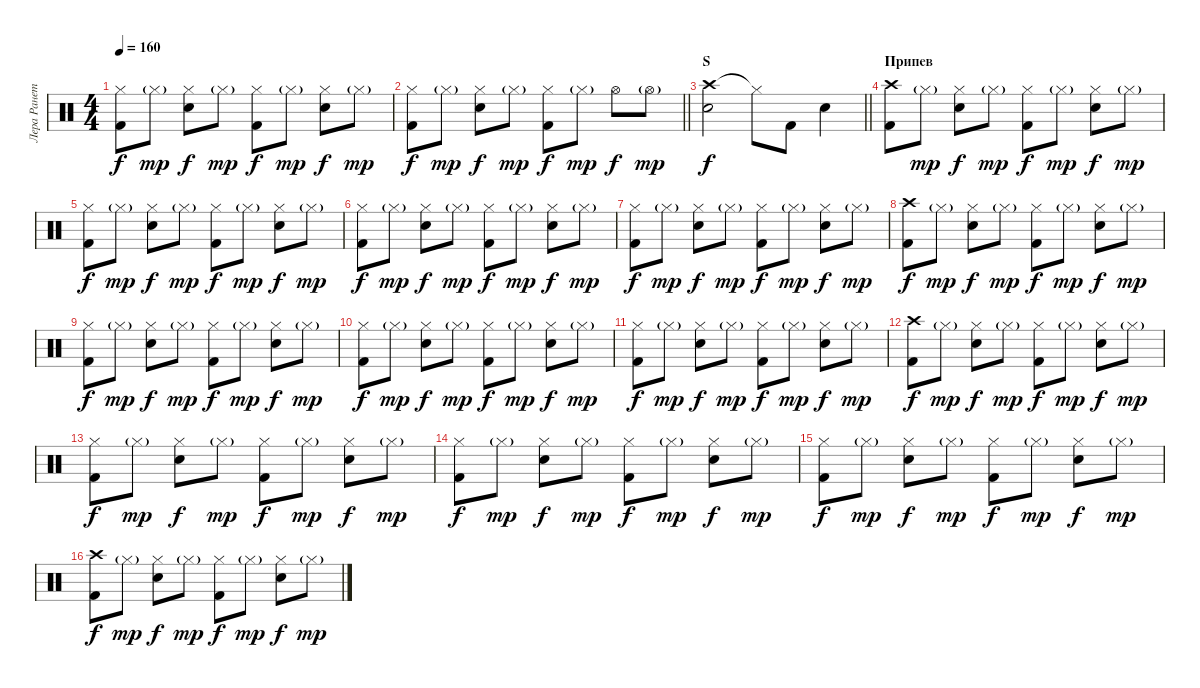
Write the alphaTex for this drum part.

\track ("Лера Ранетка" "Лера Ранет") {instrument percussion}
\staff {score}
\articulation defaults
\ts (4 4)
\tempo 160
\clef neutral
\ks c
("Hi-Hat (closed)" "Kick (hit) 2").8{dy f} "Hi-Hat (closed)"{g}.8{dy mp} ("Hi-Hat (closed)" "Snare (hit) 2").8{dy f} "Hi-Hat (closed)"{g}.8{dy mp} ("Hi-Hat (closed)" "Kick (hit) 2").8{dy f} "Hi-Hat (closed)"{g}.8{dy mp} ("Hi-Hat (closed)" "Snare (hit) 2").8{dy f} "Hi-Hat (closed)"{g}.8{dy mp} |
\barLineRight lightlight
("Hi-Hat (closed)" "Kick (hit) 2").8{dy f} "Hi-Hat (closed)"{g}.8{dy mp} ("Hi-Hat (closed)" "Snare (hit) 2").8{dy f} "Hi-Hat (closed)"{g}.8{dy mp} ("Hi-Hat (closed)" "Kick (hit) 2").8{dy f} "Hi-Hat (closed)"{g}.8{dy mp} "Hi-Hat (open)".8{dy f} "Hi-Hat (open)"{g}.8{dy mp} |
\section ("" "S")
\barLineRight lightlight
("Crash high (hit)" "Snare (hit) 2").2{dy f} "Hi-Hat (closed)"{t}.8 "Kick (hit) 2".8 "Snare (hit) 2".4 |
\section ("" "Припев")
("Crash high (hit)" "Kick (hit) 2").8 "Hi-Hat (closed)"{g}.8{dy mp} ("Hi-Hat (closed)" "Snare (hit) 2").8{dy f} "Hi-Hat (closed)"{g}.8{dy mp} ("Hi-Hat (closed)" "Kick (hit) 2").8{dy f} "Hi-Hat (closed)"{g}.8{dy mp} ("Hi-Hat (closed)" "Snare (hit) 2").8{dy f} "Hi-Hat (closed)"{g}.8{dy mp} |
("Hi-Hat (closed)" "Kick (hit) 2").8{dy f} "Hi-Hat (closed)"{g}.8{dy mp} ("Hi-Hat (closed)" "Snare (hit) 2").8{dy f} "Hi-Hat (closed)"{g}.8{dy mp} ("Hi-Hat (closed)" "Kick (hit) 2").8{dy f} "Hi-Hat (closed)"{g}.8{dy mp} ("Hi-Hat (closed)" "Snare (hit) 2").8{dy f} "Hi-Hat (closed)"{g}.8{dy mp} |
("Hi-Hat (closed)" "Kick (hit) 2").8{dy f} "Hi-Hat (closed)"{g}.8{dy mp} ("Hi-Hat (closed)" "Snare (hit) 2").8{dy f} "Hi-Hat (closed)"{g}.8{dy mp} ("Hi-Hat (closed)" "Kick (hit) 2").8{dy f} "Hi-Hat (closed)"{g}.8{dy mp} ("Hi-Hat (closed)" "Snare (hit) 2").8{dy f} "Hi-Hat (closed)"{g}.8{dy mp} |
("Hi-Hat (closed)" "Kick (hit) 2").8{dy f} "Hi-Hat (closed)"{g}.8{dy mp} ("Hi-Hat (closed)" "Snare (hit) 2").8{dy f} "Hi-Hat (closed)"{g}.8{dy mp} ("Hi-Hat (closed)" "Kick (hit) 2").8{dy f} "Hi-Hat (closed)"{g}.8{dy mp} ("Hi-Hat (closed)" "Snare (hit) 2").8{dy f} "Hi-Hat (closed)"{g}.8{dy mp} |
("Crash high (hit)" "Kick (hit) 2").8{dy f} "Hi-Hat (closed)"{g}.8{dy mp} ("Hi-Hat (closed)" "Snare (hit) 2").8{dy f} "Hi-Hat (closed)"{g}.8{dy mp} ("Hi-Hat (closed)" "Kick (hit) 2").8{dy f} "Hi-Hat (closed)"{g}.8{dy mp} ("Hi-Hat (closed)" "Snare (hit) 2").8{dy f} "Hi-Hat (closed)"{g}.8{dy mp} |
("Hi-Hat (closed)" "Kick (hit) 2").8{dy f} "Hi-Hat (closed)"{g}.8{dy mp} ("Hi-Hat (closed)" "Snare (hit) 2").8{dy f} "Hi-Hat (closed)"{g}.8{dy mp} ("Hi-Hat (closed)" "Kick (hit) 2").8{dy f} "Hi-Hat (closed)"{g}.8{dy mp} ("Hi-Hat (closed)" "Snare (hit) 2").8{dy f} "Hi-Hat (closed)"{g}.8{dy mp} |
("Hi-Hat (closed)" "Kick (hit) 2").8{dy f} "Hi-Hat (closed)"{g}.8{dy mp} ("Hi-Hat (closed)" "Snare (hit) 2").8{dy f} "Hi-Hat (closed)"{g}.8{dy mp} ("Hi-Hat (closed)" "Kick (hit) 2").8{dy f} "Hi-Hat (closed)"{g}.8{dy mp} ("Hi-Hat (closed)" "Snare (hit) 2").8{dy f} "Hi-Hat (closed)"{g}.8{dy mp} |
("Hi-Hat (closed)" "Kick (hit) 2").8{dy f} "Hi-Hat (closed)"{g}.8{dy mp} ("Hi-Hat (closed)" "Snare (hit) 2").8{dy f} "Hi-Hat (closed)"{g}.8{dy mp} ("Hi-Hat (closed)" "Kick (hit) 2").8{dy f} "Hi-Hat (closed)"{g}.8{dy mp} ("Hi-Hat (closed)" "Snare (hit) 2").8{dy f} "Hi-Hat (closed)"{g}.8{dy mp} |
("Crash high (hit)" "Kick (hit) 2").8{dy f} "Hi-Hat (closed)"{g}.8{dy mp} ("Hi-Hat (closed)" "Snare (hit) 2").8{dy f} "Hi-Hat (closed)"{g}.8{dy mp} ("Hi-Hat (closed)" "Kick (hit) 2").8{dy f} "Hi-Hat (closed)"{g}.8{dy mp} ("Hi-Hat (closed)" "Snare (hit) 2").8{dy f} "Hi-Hat (closed)"{g}.8{dy mp} |
("Hi-Hat (closed)" "Kick (hit) 2").8{dy f} "Hi-Hat (closed)"{g}.8{dy mp} ("Hi-Hat (closed)" "Snare (hit) 2").8{dy f} "Hi-Hat (closed)"{g}.8{dy mp} ("Hi-Hat (closed)" "Kick (hit) 2").8{dy f} "Hi-Hat (closed)"{g}.8{dy mp} ("Hi-Hat (closed)" "Snare (hit) 2").8{dy f} "Hi-Hat (closed)"{g}.8{dy mp} |
("Hi-Hat (closed)" "Kick (hit) 2").8{dy f} "Hi-Hat (closed)"{g}.8{dy mp} ("Hi-Hat (closed)" "Snare (hit) 2").8{dy f} "Hi-Hat (closed)"{g}.8{dy mp} ("Hi-Hat (closed)" "Kick (hit) 2").8{dy f} "Hi-Hat (closed)"{g}.8{dy mp} ("Hi-Hat (closed)" "Snare (hit) 2").8{dy f} "Hi-Hat (closed)"{g}.8{dy mp} |
("Hi-Hat (closed)" "Kick (hit) 2").8{dy f} "Hi-Hat (closed)"{g}.8{dy mp} ("Hi-Hat (closed)" "Snare (hit) 2").8{dy f} "Hi-Hat (closed)"{g}.8{dy mp} ("Hi-Hat (closed)" "Kick (hit) 2").8{dy f} "Hi-Hat (closed)"{g}.8{dy mp} ("Hi-Hat (closed)" "Snare (hit) 2").8{dy f} "Hi-Hat (closed)"{g}.8{dy mp} |
("Crash high (hit)" "Kick (hit) 2").8{dy f} "Hi-Hat (closed)"{g}.8{dy mp} ("Hi-Hat (closed)" "Snare (hit) 2").8{dy f} "Hi-Hat (closed)"{g}.8{dy mp} ("Hi-Hat (closed)" "Kick (hit) 2").8{dy f} "Hi-Hat (closed)"{g}.8{dy mp} ("Hi-Hat (closed)" "Snare (hit) 2").8{dy f} "Hi-Hat (closed)"{g}.8{dy mp}
